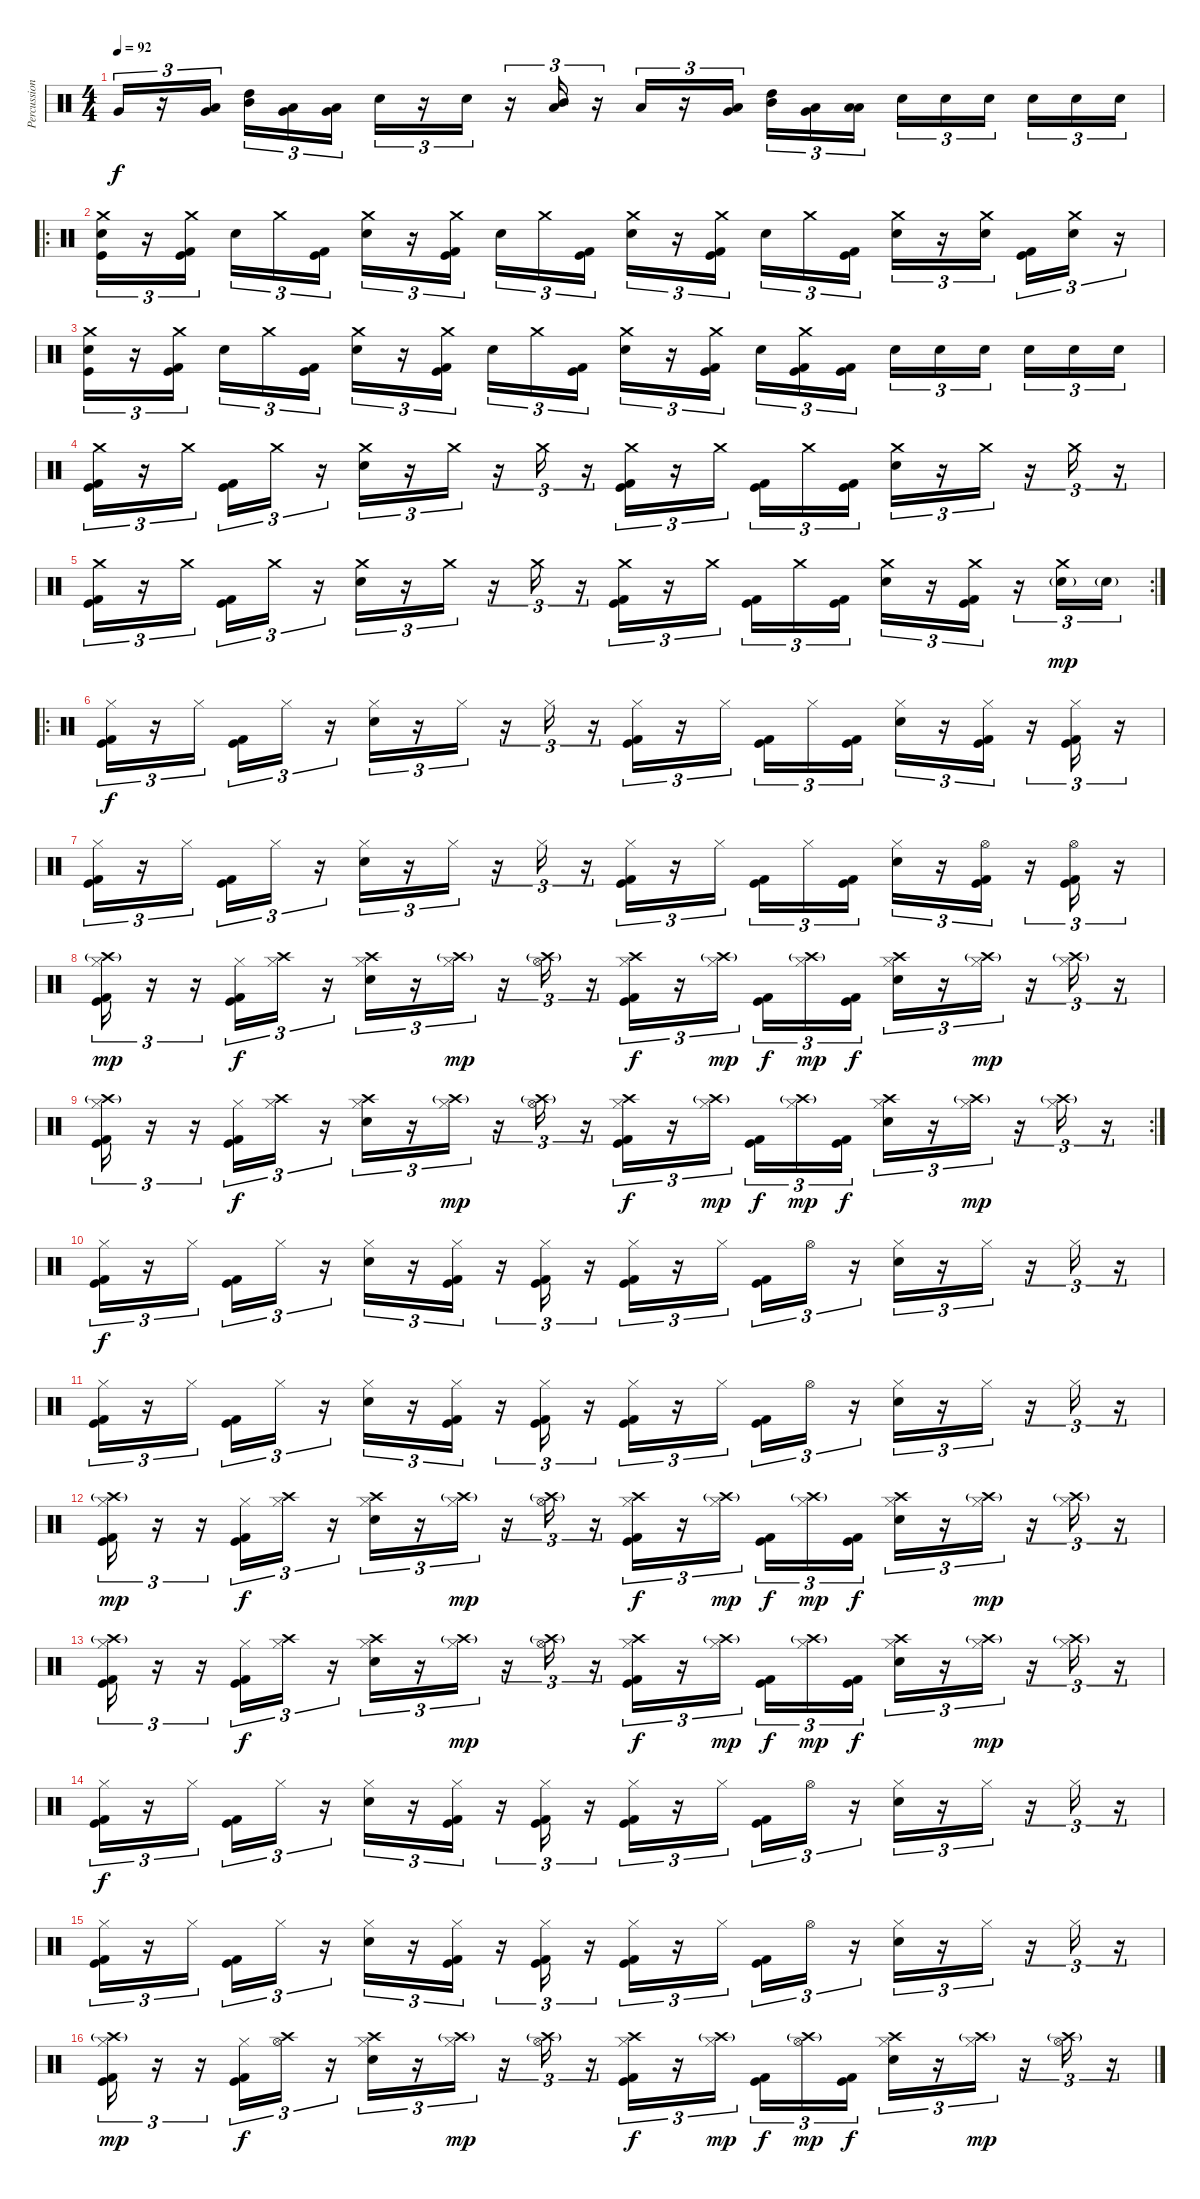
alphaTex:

\track ("Percussions" "Percussion") {instrument percussion}
\staff {score}
\articulation defaults
\ts (4 4)
\tempo 92
\clef neutral
\ks c "Very Low Tom (hit)".16{tu (3 2) dy f}
r.16{tu (3 2)} ("Very Low Tom (hit)" "Low Tom (hit)").16{tu (3 2)} ("Mid Tom (hit)" "High Tom (hit)").16{tu (3 2)} ("Low Tom (hit)" "Very Low Tom (hit)").16{tu (3 2)} ("Low Tom (hit)" "Very Low Tom (hit)").16{tu (3 2)} "Electric Snare (hit)".16{tu (3 2)} r.16{tu (3 2)} "Electric Snare (hit)".16{tu (3 2)} r.16{tu (3 2)} ("Low Tom (hit)" "Mid Tom (hit)").16{tu (3 2)} r.16{tu (3 2)} "Low Floor Tom (hit)".16{tu (3 2)} r.16{tu (3 2)} ("Very Low Tom (hit)" "Low Tom (hit)").16{tu (3 2)} ("Mid Tom (hit)" "High Tom (hit)").16{tu (3 2)} ("Low Tom (hit)" "Very Low Tom (hit)").16{tu (3 2)} ("Low Floor Tom (hit)" "Low Tom (hit)").16{tu (3 2)} "Electric Snare (hit)".16{tu (3 2)} "Electric Snare (hit)".16{tu (3 2)} "Electric Snare (hit)".16{tu (3 2)} "Electric Snare (hit)".16{tu (3 2)} "Electric Snare (hit)".16{tu (3 2)} "Electric Snare (hit)".16{tu (3 2)} |
\ro
("Crash medium (hit)" "Electric Snare (hit)" "Kick (hit)").16{tu (3 2)} r.16{tu (3 2)} ("Crash medium (hit)" "Kick (hit) 2" "Kick (hit)").16{tu (3 2)} "Electric Snare (hit)".16{tu (3 2)} "Crash medium (hit)".16{tu (3 2)} ("Kick (hit) 2" "Kick (hit)").16{tu (3 2)} ("Crash medium (hit)" "Electric Snare (hit)").16{tu (3 2)} r.16{tu (3 2)} ("Crash medium (hit)" "Kick (hit) 2" "Kick (hit)").16{tu (3 2)} "Electric Snare (hit)".16{tu (3 2)} "Crash medium (hit)".16{tu (3 2)} ("Kick (hit) 2" "Kick (hit)").16{tu (3 2)} ("Crash medium (hit)" "Electric Snare (hit)").16{tu (3 2)} r.16{tu (3 2)} ("Crash medium (hit)" "Kick (hit) 2" "Kick (hit)").16{tu (3 2)} "Electric Snare (hit)".16{tu (3 2)} "Crash medium (hit)".16{tu (3 2)} ("Kick (hit) 2" "Kick (hit)").16{tu (3 2)} ("Crash medium (hit)" "Electric Snare (hit)").16{tu (3 2)} r.16{tu (3 2)} ("Crash medium (hit)" "Electric Snare (hit)").16{tu (3 2)} ("Kick (hit) 2" "Kick (hit)").16{tu (3 2)} ("Crash medium (hit)" "Electric Snare (hit)").16{tu (3 2)} r.16{tu (3 2)} |
("Crash medium (hit)" "Electric Snare (hit)" "Kick (hit)").16{tu (3 2)} r.16{tu (3 2)} ("Crash medium (hit)" "Kick (hit) 2" "Kick (hit)").16{tu (3 2)} "Electric Snare (hit)".16{tu (3 2)} "Crash medium (hit)".16{tu (3 2)} ("Kick (hit) 2" "Kick (hit)").16{tu (3 2)} ("Crash medium (hit)" "Electric Snare (hit)").16{tu (3 2)} r.16{tu (3 2)} ("Crash medium (hit)" "Kick (hit)" "Kick (hit) 2").16{tu (3 2)} "Electric Snare (hit)".16{tu (3 2)} "Crash medium (hit)".16{tu (3 2)} ("Kick (hit) 2" "Kick (hit)").16{tu (3 2)} ("Crash medium (hit)" "Electric Snare (hit)").16{tu (3 2)} r.16{tu (3 2)} ("Crash medium (hit)" "Kick (hit) 2" "Kick (hit)").16{tu (3 2)} "Electric Snare (hit)".16{tu (3 2)} ("Crash medium (hit)" "Kick (hit) 2" "Kick (hit)").16{tu (3 2)} ("Kick (hit) 2" "Kick (hit)").16{tu (3 2)} "Electric Snare (hit)".16{tu (3 2)} "Electric Snare (hit)".16{tu (3 2)} "Electric Snare (hit)".16{tu (3 2)} "Electric Snare (hit)".16{tu (3 2)} "Electric Snare (hit)".16{tu (3 2)} "Electric Snare (hit)".16{tu (3 2)} |
("Crash medium (hit)" "Kick (hit) 2" "Kick (hit)").16{tu (3 2)} r.16{tu (3 2)} "Crash medium (hit)".16{tu (3 2)} ("Kick (hit) 2" "Kick (hit)").16{tu (3 2)} "Crash medium (hit)".16{tu (3 2)} r.16{tu (3 2)} ("Crash medium (hit)" "Electric Snare (hit)").16{tu (3 2)} r.16{tu (3 2)} "Crash medium (hit)".16{tu (3 2)} r.16{tu (3 2)} "Crash medium (hit)".16{tu (3 2)} r.16{tu (3 2)} ("Crash medium (hit)" "Kick (hit) 2" "Kick (hit)").16{tu (3 2)} r.16{tu (3 2)} "Crash medium (hit)".16{tu (3 2)} ("Kick (hit) 2" "Kick (hit)").16{tu (3 2)} "Crash medium (hit)".16{tu (3 2)} ("Kick (hit) 2" "Kick (hit)").16{tu (3 2)} ("Crash medium (hit)" "Electric Snare (hit)").16{tu (3 2)} r.16{tu (3 2)} "Crash medium (hit)".16{tu (3 2)} r.16{tu (3 2)} "Crash medium (hit)".16{tu (3 2)} r.16{tu (3 2)} |
\rc 2
("Crash medium (hit)" "Kick (hit) 2" "Kick (hit)").16{tu (3 2)} r.16{tu (3 2)} "Crash medium (hit)".16{tu (3 2)} ("Kick (hit) 2" "Kick (hit)").16{tu (3 2)} "Crash medium (hit)".16{tu (3 2)} r.16{tu (3 2)} ("Crash medium (hit)" "Electric Snare (hit)").16{tu (3 2)} r.16{tu (3 2)} "Crash medium (hit)".16{tu (3 2)} r.16{tu (3 2)} "Crash medium (hit)".16{tu (3 2)} r.16{tu (3 2)} ("Crash medium (hit)" "Kick (hit) 2" "Kick (hit)").16{tu (3 2)} r.16{tu (3 2)} "Crash medium (hit)".16{tu (3 2)} ("Kick (hit) 2" "Kick (hit)").16{tu (3 2)} "Crash medium (hit)".16{tu (3 2)} ("Kick (hit) 2" "Kick (hit)").16{tu (3 2)} ("Crash medium (hit)" "Electric Snare (hit)").16{tu (3 2)} r.16{tu (3 2)} ("Crash medium (hit)" "Kick (hit) 2" "Kick (hit)").16{tu (3 2)} r.16{tu (3 2)} ("Crash medium (hit)" "Electric Snare (hit)"{g}).16{tu (3 2) dy mp} "Electric Snare (hit)"{g}.16{tu (3 2)} |
\ro
("Hi-Hat (closed)" "Kick (hit) 2" "Kick (hit)").16{tu (3 2) dy f} r.16{tu (3 2)} "Hi-Hat (closed)".16{tu (3 2)} ("Kick (hit) 2" "Kick (hit)").16{tu (3 2)} "Hi-Hat (closed)".16{tu (3 2)} r.16{tu (3 2)} ("Hi-Hat (closed)" "Electric Snare (hit)").16{tu (3 2)} r.16{tu (3 2)} "Hi-Hat (closed)".16{tu (3 2)} r.16{tu (3 2)} "Hi-Hat (closed)".16{tu (3 2)} r.16{tu (3 2)} ("Hi-Hat (closed)" "Kick (hit) 2" "Kick (hit)").16{tu (3 2)} r.16{tu (3 2)} "Hi-Hat (closed)".16{tu (3 2)} ("Kick (hit) 2" "Kick (hit)").16{tu (3 2)} "Hi-Hat (closed)".16{tu (3 2)} ("Kick (hit) 2" "Kick (hit)").16{tu (3 2)} ("Hi-Hat (closed)" "Electric Snare (hit)").16{tu (3 2)} r.16{tu (3 2)} ("Hi-Hat (closed)" "Kick (hit) 2" "Kick (hit)").16{tu (3 2)} r.16{tu (3 2)} ("Hi-Hat (closed)" "Kick (hit) 2" "Kick (hit)").16{tu (3 2)} r.16{tu (3 2)} |
("Hi-Hat (closed)" "Kick (hit) 2" "Kick (hit)").16{tu (3 2)} r.16{tu (3 2)} "Hi-Hat (closed)".16{tu (3 2)} ("Kick (hit) 2" "Kick (hit)").16{tu (3 2)} "Hi-Hat (closed)".16{tu (3 2)} r.16{tu (3 2)} ("Hi-Hat (closed)" "Electric Snare (hit)").16{tu (3 2)} r.16{tu (3 2)} "Hi-Hat (closed)".16{tu (3 2)} r.16{tu (3 2)} "Hi-Hat (closed)".16{tu (3 2)} r.16{tu (3 2)} ("Hi-Hat (closed)" "Kick (hit) 2" "Kick (hit)").16{tu (3 2)} r.16{tu (3 2)} "Hi-Hat (closed)".16{tu (3 2)} ("Kick (hit) 2" "Kick (hit)").16{tu (3 2)} "Hi-Hat (closed)".16{tu (3 2)} ("Kick (hit) 2" "Kick (hit)").16{tu (3 2)} ("Hi-Hat (closed)" "Electric Snare (hit)").16{tu (3 2)} r.16{tu (3 2)} ("Hi-Hat (open)" "Kick (hit) 2" "Kick (hit)").16{tu (3 2)} r.16{tu (3 2)} ("Hi-Hat (open)" "Kick (hit) 2" "Kick (hit)").16{tu (3 2)} r.16{tu (3 2)} |
("Crash high (hit)"{g} "Hi-Hat (closed)" "Kick (hit) 2" "Kick (hit)").16{tu (3 2) dy mp} r.16{tu (3 2)} r.16{tu (3 2)} ("Hi-Hat (closed)" "Kick (hit) 2" "Kick (hit)").16{tu (3 2) dy f} ("Crash high (hit)" "Hi-Hat (closed)").16{tu (3 2)} r.16{tu (3 2)} ("Crash high (hit)" "Hi-Hat (closed)" "Electric Snare (hit)").16{tu (3 2)} r.16{tu (3 2)} ("Crash high (hit)"{g} "Hi-Hat (closed)").16{tu (3 2) dy mp} r.16{tu (3 2)} ("Crash high (hit)"{g} "Hi-Hat (open)").16{tu (3 2)} r.16{tu (3 2)} ("Crash high (hit)" "Hi-Hat (closed)" "Kick (hit) 2" "Kick (hit)").16{tu (3 2) dy f} r.16{tu (3 2)} ("Crash high (hit)"{g} "Hi-Hat (closed)").16{tu (3 2) dy mp} ("Kick (hit) 2" "Kick (hit)").16{tu (3 2) dy f} ("Crash high (hit)"{g} "Hi-Hat (closed)").16{tu (3 2) dy mp} ("Kick (hit) 2" "Kick (hit)").16{tu (3 2) dy f} ("Crash high (hit)" "Hi-Hat (closed)" "Electric Snare (hit)").16{tu (3 2)} r.16{tu (3 2)} ("Crash high (hit)"{g} "Hi-Hat (closed)").16{tu (3 2) dy mp} r.16{tu (3 2)} ("Crash high (hit)"{g} "Hi-Hat (closed)").16{tu (3 2)} r.16{tu (3 2)} |
\rc 2
("Crash high (hit)"{g} "Hi-Hat (closed)" "Kick (hit) 2" "Kick (hit)").16{tu (3 2)} r.16{tu (3 2)} r.16{tu (3 2)} ("Hi-Hat (closed)" "Kick (hit) 2" "Kick (hit)").16{tu (3 2) dy f} ("Crash high (hit)" "Hi-Hat (closed)").16{tu (3 2)} r.16{tu (3 2)} ("Crash high (hit)" "Hi-Hat (closed)" "Electric Snare (hit)").16{tu (3 2)} r.16{tu (3 2)} ("Crash high (hit)"{g} "Hi-Hat (closed)").16{tu (3 2) dy mp} r.16{tu (3 2)} ("Crash high (hit)"{g} "Hi-Hat (open)").16{tu (3 2)} r.16{tu (3 2)} ("Crash high (hit)" "Hi-Hat (closed)" "Kick (hit) 2" "Kick (hit)").16{tu (3 2) dy f} r.16{tu (3 2)} ("Crash high (hit)"{g} "Hi-Hat (closed)").16{tu (3 2) dy mp} ("Kick (hit) 2" "Kick (hit)").16{tu (3 2) dy f} ("Crash high (hit)"{g} "Hi-Hat (closed)").16{tu (3 2) dy mp} ("Kick (hit) 2" "Kick (hit)").16{tu (3 2) dy f} ("Crash high (hit)" "Hi-Hat (closed)" "Electric Snare (hit)").16{tu (3 2)} r.16{tu (3 2)} ("Crash high (hit)"{g} "Hi-Hat (closed)").16{tu (3 2) dy mp} r.16{tu (3 2)} ("Crash high (hit)"{g} "Hi-Hat (closed)").16{tu (3 2)} r.16{tu (3 2)} |
("Hi-Hat (closed)" "Kick (hit) 2" "Kick (hit)").16{tu (3 2) dy f} r.16{tu (3 2)} "Hi-Hat (closed)".16{tu (3 2)} ("Kick (hit) 2" "Kick (hit)").16{tu (3 2)} "Hi-Hat (closed)".16{tu (3 2)} r.16{tu (3 2)} ("Hi-Hat (closed)" "Electric Snare (hit)").16{tu (3 2)} r.16{tu (3 2)} ("Hi-Hat (closed)" "Kick (hit) 2" "Kick (hit)").16{tu (3 2)} r.16{tu (3 2)} ("Hi-Hat (closed)" "Kick (hit) 2" "Kick (hit)").16{tu (3 2)} r.16{tu (3 2)} ("Hi-Hat (closed)" "Kick (hit) 2" "Kick (hit)").16{tu (3 2)} r.16{tu (3 2)} "Hi-Hat (closed)".16{tu (3 2)} ("Kick (hit) 2" "Kick (hit)").16{tu (3 2)} "Hi-Hat (open)".16{tu (3 2)} r.16{tu (3 2)} ("Hi-Hat (closed)" "Electric Snare (hit)").16{tu (3 2)} r.16{tu (3 2)} "Hi-Hat (closed)".16{tu (3 2)} r.16{tu (3 2)} "Hi-Hat (closed)".16{tu (3 2)} r.16{tu (3 2)} |
("Hi-Hat (closed)" "Kick (hit) 2" "Kick (hit)").16{tu (3 2)} r.16{tu (3 2)} "Hi-Hat (closed)".16{tu (3 2)} ("Kick (hit) 2" "Kick (hit)").16{tu (3 2)} "Hi-Hat (closed)".16{tu (3 2)} r.16{tu (3 2)} ("Hi-Hat (closed)" "Electric Snare (hit)").16{tu (3 2)} r.16{tu (3 2)} ("Hi-Hat (closed)" "Kick (hit) 2" "Kick (hit)").16{tu (3 2)} r.16{tu (3 2)} ("Hi-Hat (closed)" "Kick (hit) 2" "Kick (hit)").16{tu (3 2)} r.16{tu (3 2)} ("Hi-Hat (closed)" "Kick (hit) 2" "Kick (hit)").16{tu (3 2)} r.16{tu (3 2)} "Hi-Hat (closed)".16{tu (3 2)} ("Kick (hit) 2" "Kick (hit)").16{tu (3 2)} "Hi-Hat (open)".16{tu (3 2)} r.16{tu (3 2)} ("Hi-Hat (closed)" "Electric Snare (hit)").16{tu (3 2)} r.16{tu (3 2)} "Hi-Hat (closed)".16{tu (3 2)} r.16{tu (3 2)} "Hi-Hat (closed)".16{tu (3 2)} r.16{tu (3 2)} |
("Crash high (hit)"{g} "Hi-Hat (closed)" "Kick (hit) 2" "Kick (hit)").16{tu (3 2) dy mp} r.16{tu (3 2)} r.16{tu (3 2)} ("Hi-Hat (closed)" "Kick (hit) 2" "Kick (hit)").16{tu (3 2) dy f} ("Crash high (hit)" "Hi-Hat (closed)").16{tu (3 2)} r.16{tu (3 2)} ("Crash high (hit)" "Hi-Hat (closed)" "Electric Snare (hit)").16{tu (3 2)} r.16{tu (3 2)} ("Crash high (hit)"{g} "Hi-Hat (closed)").16{tu (3 2) dy mp} r.16{tu (3 2)} ("Crash high (hit)"{g} "Hi-Hat (open)").16{tu (3 2)} r.16{tu (3 2)} ("Crash high (hit)" "Hi-Hat (closed)" "Kick (hit) 2" "Kick (hit)").16{tu (3 2) dy f} r.16{tu (3 2)} ("Crash high (hit)"{g} "Hi-Hat (closed)").16{tu (3 2) dy mp} ("Kick (hit) 2" "Kick (hit)").16{tu (3 2) dy f} ("Crash high (hit)"{g} "Hi-Hat (closed)").16{tu (3 2) dy mp} ("Kick (hit) 2" "Kick (hit)").16{tu (3 2) dy f} ("Crash high (hit)" "Hi-Hat (closed)" "Electric Snare (hit)").16{tu (3 2)} r.16{tu (3 2)} ("Crash high (hit)"{g} "Hi-Hat (closed)").16{tu (3 2) dy mp} r.16{tu (3 2)} ("Crash high (hit)"{g} "Hi-Hat (closed)").16{tu (3 2)} r.16{tu (3 2)} |
("Crash high (hit)"{g} "Hi-Hat (closed)" "Kick (hit) 2" "Kick (hit)").16{tu (3 2)} r.16{tu (3 2)} r.16{tu (3 2)} ("Hi-Hat (closed)" "Kick (hit) 2" "Kick (hit)").16{tu (3 2) dy f} ("Crash high (hit)" "Hi-Hat (closed)").16{tu (3 2)} r.16{tu (3 2)} ("Crash high (hit)" "Hi-Hat (closed)" "Electric Snare (hit)").16{tu (3 2)} r.16{tu (3 2)} ("Crash high (hit)"{g} "Hi-Hat (closed)").16{tu (3 2) dy mp} r.16{tu (3 2)} ("Crash high (hit)"{g} "Hi-Hat (open)").16{tu (3 2)} r.16{tu (3 2)} ("Crash high (hit)" "Hi-Hat (closed)" "Kick (hit) 2" "Kick (hit)").16{tu (3 2) dy f} r.16{tu (3 2)} ("Crash high (hit)"{g} "Hi-Hat (closed)").16{tu (3 2) dy mp} ("Kick (hit) 2" "Kick (hit)").16{tu (3 2) dy f} ("Crash high (hit)"{g} "Hi-Hat (closed)").16{tu (3 2) dy mp} ("Kick (hit) 2" "Kick (hit)").16{tu (3 2) dy f} ("Crash high (hit)" "Hi-Hat (closed)" "Electric Snare (hit)").16{tu (3 2)} r.16{tu (3 2)} ("Crash high (hit)"{g} "Hi-Hat (closed)").16{tu (3 2) dy mp} r.16{tu (3 2)} ("Crash high (hit)"{g} "Hi-Hat (closed)").16{tu (3 2)} r.16{tu (3 2)} |
("Hi-Hat (closed)" "Kick (hit) 2" "Kick (hit)").16{tu (3 2) dy f} r.16{tu (3 2)} "Hi-Hat (closed)".16{tu (3 2)} ("Kick (hit) 2" "Kick (hit)").16{tu (3 2)} "Hi-Hat (closed)".16{tu (3 2)} r.16{tu (3 2)} ("Hi-Hat (closed)" "Electric Snare (hit)").16{tu (3 2)} r.16{tu (3 2)} ("Hi-Hat (closed)" "Kick (hit) 2" "Kick (hit)").16{tu (3 2)} r.16{tu (3 2)} ("Hi-Hat (closed)" "Kick (hit) 2" "Kick (hit)").16{tu (3 2)} r.16{tu (3 2)} ("Hi-Hat (closed)" "Kick (hit) 2" "Kick (hit)").16{tu (3 2)} r.16{tu (3 2)} "Hi-Hat (closed)".16{tu (3 2)} ("Kick (hit) 2" "Kick (hit)").16{tu (3 2)} "Hi-Hat (open)".16{tu (3 2)} r.16{tu (3 2)} ("Hi-Hat (closed)" "Electric Snare (hit)").16{tu (3 2)} r.16{tu (3 2)} "Hi-Hat (closed)".16{tu (3 2)} r.16{tu (3 2)} "Hi-Hat (closed)".16{tu (3 2)} r.16{tu (3 2)} |
("Hi-Hat (closed)" "Kick (hit) 2" "Kick (hit)").16{tu (3 2)} r.16{tu (3 2)} "Hi-Hat (closed)".16{tu (3 2)} ("Kick (hit) 2" "Kick (hit)").16{tu (3 2)} "Hi-Hat (closed)".16{tu (3 2)} r.16{tu (3 2)} ("Hi-Hat (closed)" "Electric Snare (hit)").16{tu (3 2)} r.16{tu (3 2)} ("Hi-Hat (closed)" "Kick (hit) 2" "Kick (hit)").16{tu (3 2)} r.16{tu (3 2)} ("Hi-Hat (closed)" "Kick (hit) 2" "Kick (hit)").16{tu (3 2)} r.16{tu (3 2)} ("Hi-Hat (closed)" "Kick (hit) 2" "Kick (hit)").16{tu (3 2)} r.16{tu (3 2)} "Hi-Hat (closed)".16{tu (3 2)} ("Kick (hit) 2" "Kick (hit)").16{tu (3 2)} "Hi-Hat (open)".16{tu (3 2)} r.16{tu (3 2)} ("Hi-Hat (closed)" "Electric Snare (hit)").16{tu (3 2)} r.16{tu (3 2)} "Hi-Hat (closed)".16{tu (3 2)} r.16{tu (3 2)} "Hi-Hat (closed)".16{tu (3 2)} r.16{tu (3 2)} |
("Crash high (hit)"{g} "Hi-Hat (closed)" "Kick (hit) 2" "Kick (hit)").16{tu (3 2) dy mp} r.16{tu (3 2)} r.16{tu (3 2)} ("Hi-Hat (closed)" "Kick (hit) 2" "Kick (hit)").16{tu (3 2) dy f} ("Crash high (hit)" "Hi-Hat (open)").16{tu (3 2)} r.16{tu (3 2)} ("Crash high (hit)" "Hi-Hat (closed)" "Electric Snare (hit)").16{tu (3 2)} r.16{tu (3 2)} ("Crash high (hit)"{g} "Hi-Hat (closed)").16{tu (3 2) dy mp} r.16{tu (3 2)} ("Crash high (hit)"{g} "Hi-Hat (open)").16{tu (3 2)} r.16{tu (3 2)} ("Crash high (hit)" "Hi-Hat (closed)" "Kick (hit) 2" "Kick (hit)").16{tu (3 2) dy f} r.16{tu (3 2)} ("Crash high (hit)"{g} "Hi-Hat (closed)").16{tu (3 2) dy mp} ("Kick (hit) 2" "Kick (hit)").16{tu (3 2) dy f} ("Crash high (hit)"{g} "Hi-Hat (open)").16{tu (3 2) dy mp} ("Kick (hit) 2" "Kick (hit)").16{tu (3 2) dy f} ("Crash high (hit)" "Hi-Hat (closed)" "Electric Snare (hit)").16{tu (3 2)} r.16{tu (3 2)} ("Crash high (hit)"{g} "Hi-Hat (closed)").16{tu (3 2) dy mp} r.16{tu (3 2)} ("Crash high (hit)"{g} "Hi-Hat (open)").16{tu (3 2)} r.16{tu (3 2)}
